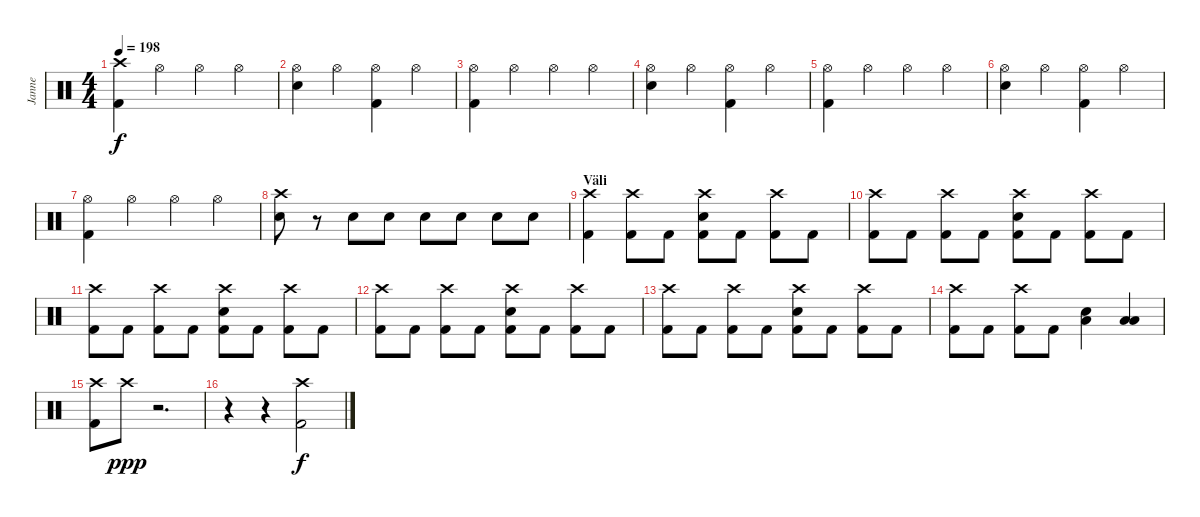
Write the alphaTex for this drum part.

\track ("Janne" "Janne") {instrument percussion}
\staff {score}
\articulation defaults
\ts (4 4)
\tempo 198
\clef neutral
\ks c
("Crash high (hit)" "Kick (hit) 2").4{dy f} "Hi-Hat (open)".4 "Hi-Hat (open)".4 "Hi-Hat (open)".4 |
("Hi-Hat (open)" "Electric Snare (hit)").4 "Hi-Hat (open)".4 ("Hi-Hat (open)" "Kick (hit) 2").4 "Hi-Hat (open)".4 |
("Hi-Hat (open)" "Kick (hit) 2").4 "Hi-Hat (open)".4 "Hi-Hat (open)".4 "Hi-Hat (open)".4 |
("Hi-Hat (open)" "Electric Snare (hit)").4 "Hi-Hat (open)".4 ("Hi-Hat (open)" "Kick (hit) 2").4 "Hi-Hat (open)".4 |
("Hi-Hat (open)" "Kick (hit) 2").4 "Hi-Hat (open)".4 "Hi-Hat (open)".4 "Hi-Hat (open)".4 |
("Hi-Hat (open)" "Electric Snare (hit)").4 "Hi-Hat (open)".4 ("Hi-Hat (open)" "Kick (hit) 2").4 "Hi-Hat (open)".4 |
("Hi-Hat (open)" "Kick (hit) 2").4 "Hi-Hat (open)".4 "Hi-Hat (open)".4 "Hi-Hat (open)".4 |
("Crash high (hit)" "Electric Snare (hit)").8 r.8 "Electric Snare (hit)".8 "Electric Snare (hit)".8 "Electric Snare (hit)".8 "Electric Snare (hit)".8 "Electric Snare (hit)".8 "Electric Snare (hit)".8 |
\section ("" "Väli")
("Crash high (hit)" "Kick (hit) 2").4 ("Crash high (hit)" "Kick (hit) 2").8 "Kick (hit) 2".8 ("Crash high (hit)" "Electric Snare (hit)" "Kick (hit) 2").8 "Kick (hit) 2".8 ("Crash high (hit)" "Kick (hit) 2").8 "Kick (hit) 2".8 |
("Crash high (hit)" "Kick (hit) 2").8 "Kick (hit) 2".8 ("Crash high (hit)" "Kick (hit) 2").8 "Kick (hit) 2".8 ("Crash high (hit)" "Electric Snare (hit)" "Kick (hit) 2").8 "Kick (hit) 2".8 ("Crash high (hit)" "Kick (hit) 2").8 "Kick (hit) 2".8 |
("Crash high (hit)" "Kick (hit) 2").8 "Kick (hit) 2".8 ("Crash high (hit)" "Kick (hit) 2").8 "Kick (hit) 2".8 ("Crash high (hit)" "Electric Snare (hit)" "Kick (hit) 2").8 "Kick (hit) 2".8 ("Crash high (hit)" "Kick (hit) 2").8 "Kick (hit) 2".8 |
("Crash high (hit)" "Kick (hit) 2").8 "Kick (hit) 2".8 ("Crash high (hit)" "Kick (hit) 2").8 "Kick (hit) 2".8 ("Crash high (hit)" "Electric Snare (hit)" "Kick (hit) 2").8 "Kick (hit) 2".8 ("Crash high (hit)" "Kick (hit) 2").8 "Kick (hit) 2".8 |
("Crash high (hit)" "Kick (hit) 2").8 "Kick (hit) 2".8 ("Crash high (hit)" "Kick (hit) 2").8 "Kick (hit) 2".8 ("Crash high (hit)" "Electric Snare (hit)" "Kick (hit) 2").8 "Kick (hit) 2".8 ("Crash high (hit)" "Kick (hit) 2").8 "Kick (hit) 2".8 |
("Crash high (hit)" "Kick (hit) 2").8 "Kick (hit) 2".8 ("Crash high (hit)" "Kick (hit) 2").8 "Kick (hit) 2".8 ("Electric Snare (hit)" "Low Floor Tom (hit)").4 ("Low Tom (hit)" "Low Floor Tom (hit)").4 |
("Crash high (hit)" "Kick (hit) 2").8 "Crash high (hit)".8{dy ppp} r.2{d} |
r.4 r.4 ("Crash high (hit)" "Kick (hit) 2").2{dy f}
